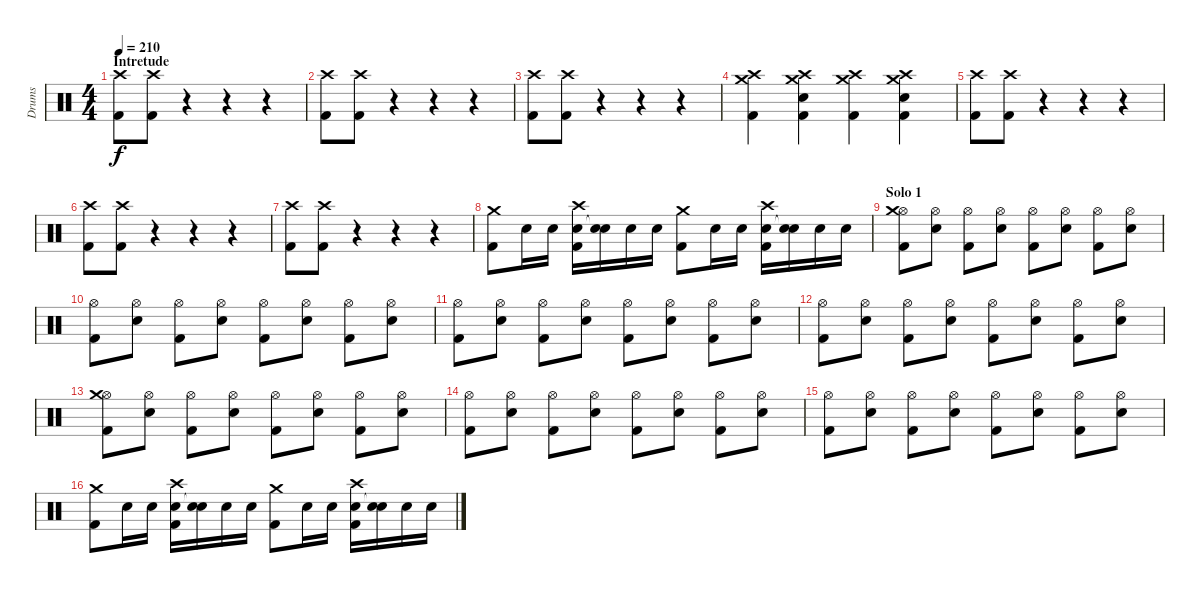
\track ("Drums" "Drums") {instrument percussion}
\staff {score}
\articulation defaults
\ts (4 4)
\section ("" "Intretude")
\tempo 210
\clef neutral
\ks c
("Crash high (hit)" "Kick (hit) 2").8{dy f} ("Crash high (hit)" "Kick (hit) 2").8 r.4 r.4 r.4 |
("Crash high (hit)" "Kick (hit) 2").8 ("Crash high (hit)" "Kick (hit) 2").8 r.4 r.4 r.4 |
("Crash high (hit)" "Kick (hit) 2").8 ("Crash high (hit)" "Kick (hit) 2").8 r.4 r.4 r.4 |
("Crash high (hit)" "Crash medium (hit)" "Kick (hit) 2").4 ("Crash medium (hit)" "Crash high (hit)" "Electric Snare (hit)" "Kick (hit) 2").4 ("Crash high (hit)" "Crash medium (hit)" "Kick (hit) 2").4 ("Crash medium (hit)" "Crash high (hit)" "Electric Snare (hit)" "Kick (hit) 2").4 |
("Crash high (hit)" "Kick (hit) 2").8 ("Crash high (hit)" "Kick (hit) 2").8 r.4 r.4 r.4 |
("Crash high (hit)" "Kick (hit) 2").8 ("Crash high (hit)" "Kick (hit) 2").8 r.4 r.4 r.4 |
("Crash high (hit)" "Kick (hit) 2").8 ("Crash high (hit)" "Kick (hit) 2").8 r.4 r.4 r.4 |
("Crash medium (hit)" "Kick (hit) 2").8 "Electric Snare (hit)".16 "Electric Snare (hit)".16 ("Crash high (hit)" "Electric Snare (hit)" "Kick (hit) 2").16 ("Electric Snare (hit)" "Snare (hit)"{t}).16 "Electric Snare (hit)".16 "Electric Snare (hit)".16 ("Crash medium (hit)" "Kick (hit) 2").8 "Electric Snare (hit)".16 "Electric Snare (hit)".16 ("Crash high (hit)" "Electric Snare (hit)" "Kick (hit) 2").16 ("Electric Snare (hit)" "Snare (hit)"{t}).16 "Electric Snare (hit)".16 "Electric Snare (hit)".16 |
\section ("" "Solo 1")
("Hi-Hat (open)" "Crash medium (hit)" "Kick (hit) 2").8 ("Hi-Hat (open)" "Electric Snare (hit)").8 ("Hi-Hat (open)" "Kick (hit) 2").8 ("Hi-Hat (open)" "Electric Snare (hit)").8 ("Hi-Hat (open)" "Kick (hit) 2").8 ("Hi-Hat (open)" "Electric Snare (hit)").8 ("Hi-Hat (open)" "Kick (hit) 2").8 ("Hi-Hat (open)" "Electric Snare (hit)").8 |
("Hi-Hat (open)" "Kick (hit) 2").8 ("Hi-Hat (open)" "Electric Snare (hit)").8 ("Hi-Hat (open)" "Kick (hit) 2").8 ("Hi-Hat (open)" "Electric Snare (hit)").8 ("Hi-Hat (open)" "Kick (hit) 2").8 ("Hi-Hat (open)" "Electric Snare (hit)").8 ("Hi-Hat (open)" "Kick (hit) 2").8 ("Hi-Hat (open)" "Electric Snare (hit)").8 |
("Hi-Hat (open)" "Kick (hit) 2").8 ("Hi-Hat (open)" "Electric Snare (hit)").8 ("Hi-Hat (open)" "Kick (hit) 2").8 ("Hi-Hat (open)" "Electric Snare (hit)").8 ("Hi-Hat (open)" "Kick (hit) 2").8 ("Hi-Hat (open)" "Electric Snare (hit)").8 ("Hi-Hat (open)" "Kick (hit) 2").8 ("Hi-Hat (open)" "Electric Snare (hit)").8 |
("Hi-Hat (open)" "Kick (hit) 2").8 ("Hi-Hat (open)" "Electric Snare (hit)").8 ("Hi-Hat (open)" "Kick (hit) 2").8 ("Hi-Hat (open)" "Electric Snare (hit)").8 ("Hi-Hat (open)" "Kick (hit) 2").8 ("Hi-Hat (open)" "Electric Snare (hit)").8 ("Hi-Hat (open)" "Kick (hit) 2").8 ("Hi-Hat (open)" "Electric Snare (hit)").8 |
("Hi-Hat (open)" "Crash medium (hit)" "Kick (hit) 2").8 ("Hi-Hat (open)" "Electric Snare (hit)").8 ("Hi-Hat (open)" "Kick (hit) 2").8 ("Hi-Hat (open)" "Electric Snare (hit)").8 ("Hi-Hat (open)" "Kick (hit) 2").8 ("Hi-Hat (open)" "Electric Snare (hit)").8 ("Hi-Hat (open)" "Kick (hit) 2").8 ("Hi-Hat (open)" "Electric Snare (hit)").8 |
("Hi-Hat (open)" "Kick (hit) 2").8 ("Hi-Hat (open)" "Electric Snare (hit)").8 ("Hi-Hat (open)" "Kick (hit) 2").8 ("Hi-Hat (open)" "Electric Snare (hit)").8 ("Hi-Hat (open)" "Kick (hit) 2").8 ("Hi-Hat (open)" "Electric Snare (hit)").8 ("Hi-Hat (open)" "Kick (hit) 2").8 ("Hi-Hat (open)" "Electric Snare (hit)").8 |
("Hi-Hat (open)" "Kick (hit) 2").8 ("Hi-Hat (open)" "Electric Snare (hit)").8 ("Hi-Hat (open)" "Kick (hit) 2").8 ("Hi-Hat (open)" "Electric Snare (hit)").8 ("Hi-Hat (open)" "Kick (hit) 2").8 ("Hi-Hat (open)" "Electric Snare (hit)").8 ("Hi-Hat (open)" "Kick (hit) 2").8 ("Hi-Hat (open)" "Electric Snare (hit)").8 |
("Crash medium (hit)" "Kick (hit) 2").8 "Electric Snare (hit)".16 "Electric Snare (hit)".16 ("Crash high (hit)" "Electric Snare (hit)" "Kick (hit) 2").16 ("Electric Snare (hit)" "Snare (hit)"{t}).16 "Electric Snare (hit)".16 "Electric Snare (hit)".16 ("Crash medium (hit)" "Kick (hit) 2").8 "Electric Snare (hit)".16 "Electric Snare (hit)".16 ("Crash high (hit)" "Electric Snare (hit)" "Kick (hit) 2").16 ("Electric Snare (hit)" "Snare (hit)"{t}).16 "Electric Snare (hit)".16 "Electric Snare (hit)".16
